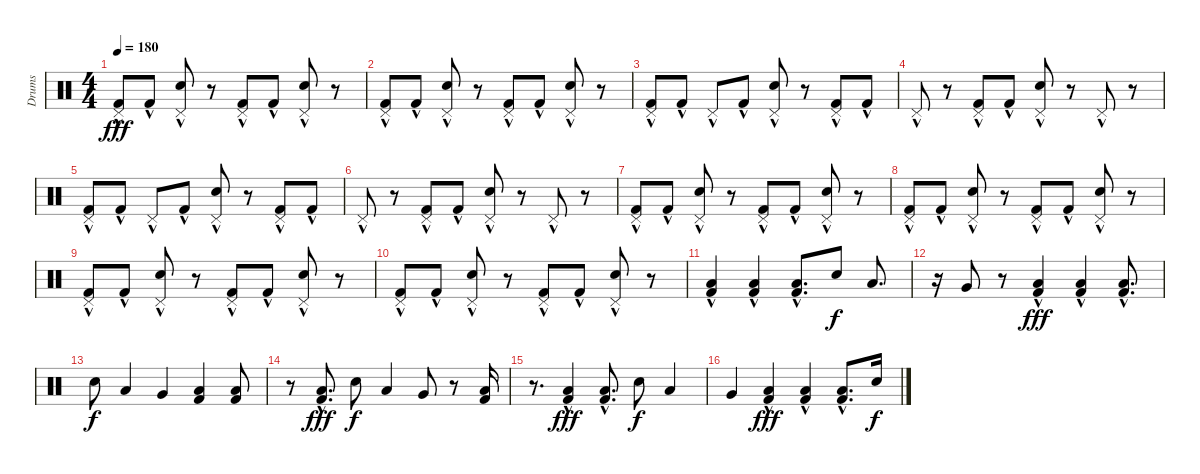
\track ("Drums" "Drums") {instrument percussion}
\staff {score}
\articulation defaults
\ts (4 4)
\tempo 180
\clef neutral
\ks c
("Pedal Hi-Hat (hit)"{hac} "Kick (hit) 2"{hac}).8{dy fff} "Kick (hit) 2"{hac}.8 ("Pedal Hi-Hat (hit)"{hac} "Snare (hit) 2"{hac}).8 r.8 ("Pedal Hi-Hat (hit)"{hac} "Kick (hit) 2"{hac}).8 "Kick (hit) 2"{hac}.8 ("Pedal Hi-Hat (hit)"{hac} "Snare (hit) 2"{hac}).8 r.8 |
("Pedal Hi-Hat (hit)"{hac} "Kick (hit) 2"{hac}).8 "Kick (hit) 2"{hac}.8 ("Pedal Hi-Hat (hit)"{hac} "Snare (hit) 2"{hac}).8 r.8 ("Pedal Hi-Hat (hit)"{hac} "Kick (hit) 2"{hac}).8 "Kick (hit) 2"{hac}.8 ("Pedal Hi-Hat (hit)"{hac} "Snare (hit) 2"{hac}).8 r.8 |
("Pedal Hi-Hat (hit)"{hac} "Kick (hit) 2"{hac}).8 "Kick (hit) 2"{hac}.8 "Pedal Hi-Hat (hit)"{hac}.8 "Kick (hit) 2"{hac}.8 ("Pedal Hi-Hat (hit)"{hac} "Snare (hit) 2"{hac}).8 r.8 ("Pedal Hi-Hat (hit)"{hac} "Kick (hit) 2"{hac}).8 "Kick (hit) 2"{hac}.8 |
"Pedal Hi-Hat (hit)"{hac}.8 r.8 ("Pedal Hi-Hat (hit)"{hac} "Kick (hit) 2"{hac}).8 "Kick (hit) 2"{hac}.8 ("Pedal Hi-Hat (hit)"{hac} "Snare (hit) 2"{hac}).8 r.8 "Pedal Hi-Hat (hit)"{hac}.8 r.8 |
("Pedal Hi-Hat (hit)"{hac} "Kick (hit) 2"{hac}).8 "Kick (hit) 2"{hac}.8 "Pedal Hi-Hat (hit)"{hac}.8 "Kick (hit) 2"{hac}.8 ("Pedal Hi-Hat (hit)"{hac} "Snare (hit) 2"{hac}).8 r.8 ("Pedal Hi-Hat (hit)"{hac} "Kick (hit) 2"{hac}).8 "Kick (hit) 2"{hac}.8 |
"Pedal Hi-Hat (hit)"{hac}.8 r.8 ("Pedal Hi-Hat (hit)"{hac} "Kick (hit) 2"{hac}).8 "Kick (hit) 2"{hac}.8 ("Pedal Hi-Hat (hit)"{hac} "Snare (hit) 2"{hac}).8 r.8 "Pedal Hi-Hat (hit)"{hac}.8 r.8 |
("Pedal Hi-Hat (hit)"{hac} "Kick (hit) 2"{hac}).8 "Kick (hit) 2"{hac}.8 ("Pedal Hi-Hat (hit)"{hac} "Snare (hit) 2"{hac}).8 r.8 ("Pedal Hi-Hat (hit)"{hac} "Kick (hit) 2"{hac}).8 "Kick (hit) 2"{hac}.8 ("Pedal Hi-Hat (hit)"{hac} "Snare (hit) 2"{hac}).8 r.8 |
("Pedal Hi-Hat (hit)"{hac} "Kick (hit) 2"{hac}).8 "Kick (hit) 2"{hac}.8 ("Pedal Hi-Hat (hit)"{hac} "Snare (hit) 2"{hac}).8 r.8 ("Pedal Hi-Hat (hit)"{hac} "Kick (hit) 2"{hac}).8 "Kick (hit) 2"{hac}.8 ("Pedal Hi-Hat (hit)"{hac} "Snare (hit) 2"{hac}).8 r.8 |
("Pedal Hi-Hat (hit)"{hac} "Kick (hit) 2"{hac}).8 "Kick (hit) 2"{hac}.8 ("Pedal Hi-Hat (hit)"{hac} "Snare (hit) 2"{hac}).8 r.8 ("Pedal Hi-Hat (hit)"{hac} "Kick (hit) 2"{hac}).8 "Kick (hit) 2"{hac}.8 ("Pedal Hi-Hat (hit)"{hac} "Snare (hit) 2"{hac}).8 r.8 |
("Pedal Hi-Hat (hit)"{hac} "Kick (hit) 2"{hac}).8 "Kick (hit) 2"{hac}.8 ("Pedal Hi-Hat (hit)"{hac} "Snare (hit) 2"{hac}).8 r.8 ("Pedal Hi-Hat (hit)"{hac} "Kick (hit) 2"{hac}).8 "Kick (hit) 2"{hac}.8 ("Pedal Hi-Hat (hit)"{hac} "Snare (hit) 2"{hac}).8 r.8 |
("Low Tom (hit)" "Kick (hit) 2"{hac}).4 ("Low Tom (hit)" "Kick (hit) 2"{hac}).4 ("Low Tom (hit)" "Kick (hit) 2"{hac}).8{d} "Snare (hit) 2".8{dy f} "Low Tom (hit)".8{d} |
r.16 "Very Low Tom (hit)".8 r.8 ("Low Tom (hit)" "Kick (hit) 2"{hac}).4{dy fff} ("Low Tom (hit)" "Kick (hit) 2"{hac}).4 ("Low Tom (hit)" "Kick (hit) 2"{hac}).8{d} |
"Snare (hit) 2".8{dy f} "Low Tom (hit)".4 "Very Low Tom (hit)".4 ("Low Tom (hit)" "Kick (hit) 2").4 ("Low Tom (hit)" "Kick (hit) 2").8 |
r.8 ("Low Tom (hit)" "Kick (hit) 2"{hac}).8{d dy fff} "Snare (hit) 2".8{dy f} "Low Tom (hit)".4 "Very Low Tom (hit)".8 r.8 ("Low Tom (hit)" "Kick (hit) 2").16 |
r.8{d} ("Low Tom (hit)" "Kick (hit) 2"{hac}).4{dy fff} ("Low Tom (hit)" "Kick (hit) 2"{hac}).8{d} "Snare (hit) 2".8{dy f} "Low Tom (hit)".4 |
"Very Low Tom (hit)".4 ("Low Tom (hit)" "Kick (hit) 2"{hac}).4{dy fff} ("Low Tom (hit)" "Kick (hit) 2"{hac}).4 ("Low Tom (hit)" "Kick (hit) 2"{hac}).8{d} "Snare (hit) 2".16{dy f}
